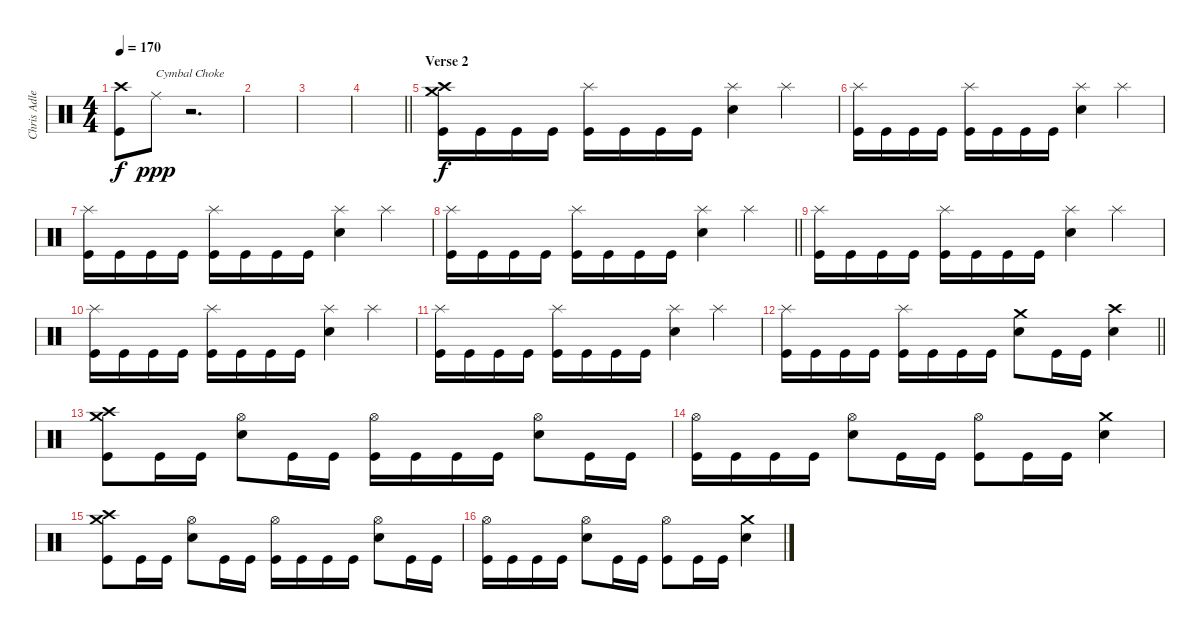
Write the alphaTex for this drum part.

\track ("Chris Adler" "Chris Adle") {instrument percussion}
\staff {score}
\articulation defaults
\ts (4 4)
\tempo 170
\clef neutral
\ks c
("Kick (hit)" "Crash high (hit)").8{dy f} "Ride (middle)".8{txt "Cymbal Choke" dy ppp} r.2{d} |
|
|
\barLineRight lightlight
|
\section ("" "Verse 2")
("Crash medium (hit)" "Crash high (hit)" "Kick (hit)").16{dy f} "Kick (hit)".16 "Kick (hit)".16 "Kick (hit)".16 ("Kick (hit)" "Splash (hit)").16 "Kick (hit)".16 "Kick (hit)".16 "Kick (hit)".16 ("Snare (hit) 2" "Splash (hit)").4 "Splash (hit)".4 |
("Splash (hit)" "Kick (hit)").16 "Kick (hit)".16 "Kick (hit)".16 "Kick (hit)".16 ("Kick (hit)" "Splash (hit)").16 "Kick (hit)".16 "Kick (hit)".16 "Kick (hit)".16 ("Snare (hit) 2" "Splash (hit)").4 "Splash (hit)".4 |
("Splash (hit)" "Kick (hit)").16 "Kick (hit)".16 "Kick (hit)".16 "Kick (hit)".16 ("Kick (hit)" "Splash (hit)").16 "Kick (hit)".16 "Kick (hit)".16 "Kick (hit)".16 ("Snare (hit) 2" "Splash (hit)").4 "Splash (hit)".4 |
\barLineRight lightlight
("Splash (hit)" "Kick (hit)").16 "Kick (hit)".16 "Kick (hit)".16 "Kick (hit)".16 ("Kick (hit)" "Splash (hit)").16 "Kick (hit)".16 "Kick (hit)".16 "Kick (hit)".16 ("Snare (hit) 2" "Splash (hit)").4 "Splash (hit)".4 |
("Splash (hit)" "Kick (hit)").16 "Kick (hit)".16 "Kick (hit)".16 "Kick (hit)".16 ("Kick (hit)" "Splash (hit)").16 "Kick (hit)".16 "Kick (hit)".16 "Kick (hit)".16 ("Snare (hit) 2" "Splash (hit)").4 "Splash (hit)".4 |
("Splash (hit)" "Kick (hit)").16 "Kick (hit)".16 "Kick (hit)".16 "Kick (hit)".16 ("Kick (hit)" "Splash (hit)").16 "Kick (hit)".16 "Kick (hit)".16 "Kick (hit)".16 ("Snare (hit) 2" "Splash (hit)").4 "Splash (hit)".4 |
("Splash (hit)" "Kick (hit)").16 "Kick (hit)".16 "Kick (hit)".16 "Kick (hit)".16 ("Kick (hit)" "Splash (hit)").16 "Kick (hit)".16 "Kick (hit)".16 "Kick (hit)".16 ("Snare (hit) 2" "Splash (hit)").4 "Splash (hit)".4 |
\barLineRight lightlight
("Splash (hit)" "Kick (hit)").16 "Kick (hit)".16 "Kick (hit)".16 "Kick (hit)".16 ("Kick (hit)" "Splash (hit)").16 "Kick (hit)".16 "Kick (hit)".16 "Kick (hit)".16 ("Crash medium (hit)" "Snare (hit) 2").8 "Kick (hit)".16 "Kick (hit)".16 ("Crash high (hit)" "Snare (hit) 2").4 |
("Kick (hit)" "Crash medium (hit)" "Crash high (hit)").8 "Kick (hit)".16 "Kick (hit)".16 ("Snare (hit) 2" "Hi-Hat (open)").8 "Kick (hit)".16 "Kick (hit)".16 ("Kick (hit)" "Hi-Hat (open)").16 "Kick (hit)".16 "Kick (hit)".16 "Kick (hit)".16 ("Snare (hit) 2" "Hi-Hat (open)").8 "Kick (hit)".16 "Kick (hit)".16 |
("Kick (hit)" "Hi-Hat (open)").16 "Kick (hit)".16 "Kick (hit)".16 "Kick (hit)".16 ("Snare (hit) 2" "Hi-Hat (open)").8 "Kick (hit)".16 "Kick (hit)".16 ("Kick (hit)" "Hi-Hat (open)").8 "Kick (hit)".16 "Kick (hit)".16 ("Crash medium (hit)" "Snare (hit) 2").4 |
("Kick (hit)" "Crash medium (hit)" "Crash high (hit)").8 "Kick (hit)".16 "Kick (hit)".16 ("Snare (hit) 2" "Hi-Hat (open)").8 "Kick (hit)".16 "Kick (hit)".16 ("Kick (hit)" "Hi-Hat (open)").16 "Kick (hit)".16 "Kick (hit)".16 "Kick (hit)".16 ("Snare (hit) 2" "Hi-Hat (open)").8 "Kick (hit)".16 "Kick (hit)".16 |
("Kick (hit)" "Hi-Hat (open)").16 "Kick (hit)".16 "Kick (hit)".16 "Kick (hit)".16 ("Snare (hit) 2" "Hi-Hat (open)").8 "Kick (hit)".16 "Kick (hit)".16 ("Kick (hit)" "Hi-Hat (open)").8 "Kick (hit)".16 "Kick (hit)".16 ("Crash medium (hit)" "Snare (hit) 2").4
